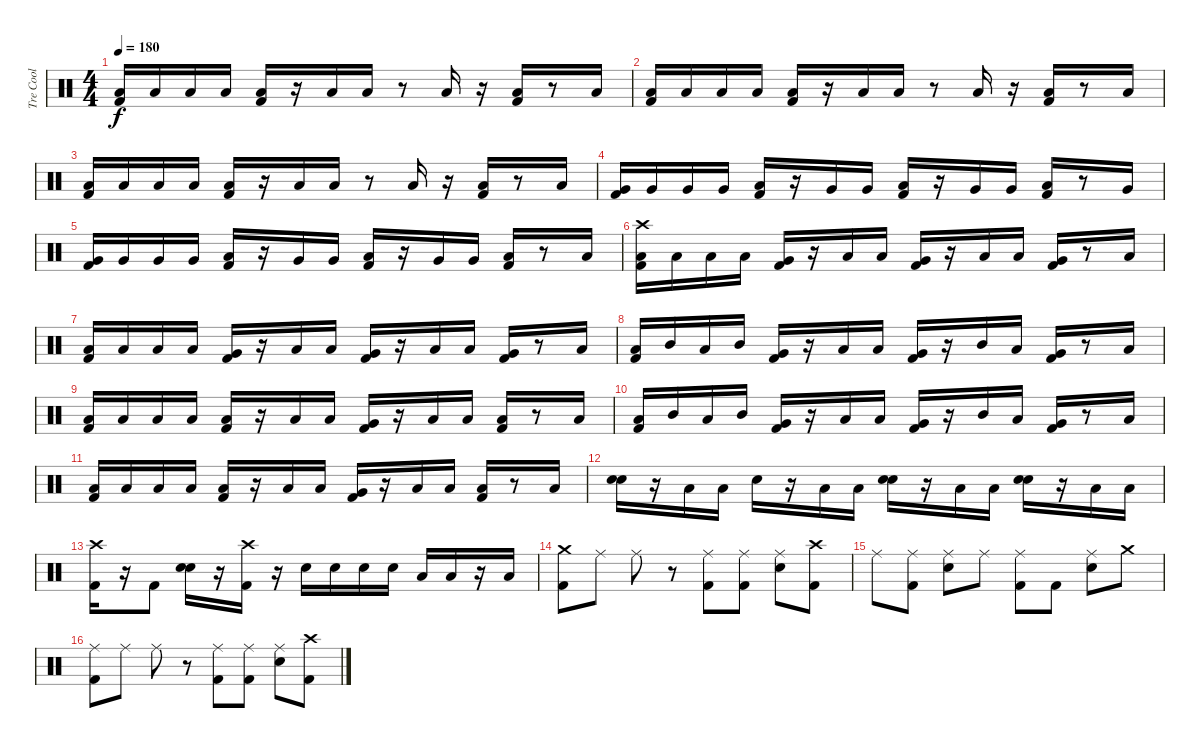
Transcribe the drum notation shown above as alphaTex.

\track ("Tre Cool" "Tre Cool") {instrument percussion}
\staff {score}
\articulation defaults
\ts (4 4)
\tempo 180
\clef neutral
\ks c
("Kick (hit) 2" "Low Floor Tom (hit)").16{dy f} "Low Floor Tom (hit)".16 "Low Floor Tom (hit)".16 "Low Floor Tom (hit)".16 ("Kick (hit) 2" "Low Floor Tom (hit)").16 r.16 "Low Floor Tom (hit)".16 "Low Floor Tom (hit)".16 r.8 "Low Floor Tom (hit)".16 r.16 ("Kick (hit) 2" "Low Floor Tom (hit)").16 r.8 "Low Floor Tom (hit)".16 |
("Kick (hit) 2" "Low Floor Tom (hit)").16 "Low Floor Tom (hit)".16 "Low Floor Tom (hit)".16 "Low Floor Tom (hit)".16 ("Kick (hit) 2" "Low Floor Tom (hit)").16 r.16 "Low Floor Tom (hit)".16 "Low Floor Tom (hit)".16 r.8 "Low Floor Tom (hit)".16 r.16 ("Kick (hit) 2" "Low Floor Tom (hit)").16 r.8 "Low Floor Tom (hit)".16 |
("Low Floor Tom (hit)" "Kick (hit) 2").16 "Low Floor Tom (hit)".16 "Low Floor Tom (hit)".16 "Low Floor Tom (hit)".16 ("Low Floor Tom (hit)" "Kick (hit) 2").16 r.16 "Low Floor Tom (hit)".16 "Low Floor Tom (hit)".16 r.8 "Low Floor Tom (hit)".16 r.16 ("Low Floor Tom (hit)" "Kick (hit) 2").16 r.8 "Low Floor Tom (hit)".16 |
("Very Low Tom (hit)" "Kick (hit) 2").16 "Very Low Tom (hit)".16 "Very Low Tom (hit)".16 "Very Low Tom (hit)".16 ("Kick (hit) 2" "Low Floor Tom (hit)").16 r.16 "Very Low Tom (hit)".16 "Very Low Tom (hit)".16 ("Kick (hit) 2" "Low Floor Tom (hit)").16 r.16 "Very Low Tom (hit)".16 "Very Low Tom (hit)".16 ("Kick (hit) 2" "Low Floor Tom (hit)").16 r.8 "Very Low Tom (hit)".16 |
("Kick (hit) 2" "Very Low Tom (hit)").16 "Very Low Tom (hit)".16 "Very Low Tom (hit)".16 "Very Low Tom (hit)".16 ("Low Floor Tom (hit)" "Kick (hit) 2").16 r.16 "Very Low Tom (hit)".16 "Very Low Tom (hit)".16 ("Low Floor Tom (hit)" "Kick (hit) 2").16 r.16 "Very Low Tom (hit)".16 "Very Low Tom (hit)".16 ("Low Floor Tom (hit)" "Kick (hit) 2").16 r.8 "Low Tom (hit)".16 |
("Crash high (hit)" "Low Tom (hit)" "Kick (hit) 2").16 "Low Tom (hit)".16 "Low Tom (hit)".16 "Low Tom (hit)".16 ("Very Low Tom (hit)" "Kick (hit) 2").16 r.16 "Low Tom (hit)".16 "Low Tom (hit)".16 ("Very Low Tom (hit)" "Kick (hit) 2").16 r.16 "Low Tom (hit)".16 "Low Tom (hit)".16 ("Very Low Tom (hit)" "Kick (hit) 2").16 r.8 "Low Tom (hit)".16 |
("Kick (hit) 2" "Low Tom (hit)").16 "Low Tom (hit)".16 "Low Tom (hit)".16 "Low Tom (hit)".16 ("Kick (hit) 2" "Very Low Tom (hit)").16 r.16 "Low Tom (hit)".16 "Low Tom (hit)".16 ("Kick (hit) 2" "Very Low Tom (hit)").16 r.16 "Low Tom (hit)".16 "Low Tom (hit)".16 ("Kick (hit) 2" "Very Low Tom (hit)").16 r.8 "Low Tom (hit)".16 |
("Kick (hit) 2" "Low Tom (hit)").16 "Mid Tom (hit)".16 "Low Tom (hit)".16 "Mid Tom (hit)".16 ("Kick (hit) 2" "Very Low Tom (hit)").16 r.16 "Low Tom (hit)".16 "Low Tom (hit)".16 ("Kick (hit) 2" "Very Low Tom (hit)").16 r.16 "Mid Tom (hit)".16 "Low Tom (hit)".16 ("Kick (hit) 2" "Very Low Tom (hit)").16 r.8 "Low Tom (hit)".16 |
("Low Tom (hit)" "Kick (hit) 2").16 "Low Tom (hit)".16 "Low Tom (hit)".16 "Low Tom (hit)".16 ("Low Floor Tom (hit)" "Kick (hit) 2").16 r.16 "Low Tom (hit)".16 "Low Tom (hit)".16 ("Very Low Tom (hit)" "Kick (hit) 2").16 r.16 "Low Tom (hit)".16 "Low Tom (hit)".16 ("Low Floor Tom (hit)" "Kick (hit) 2").16 r.8 "Low Tom (hit)".16 |
("Low Tom (hit)" "Kick (hit) 2").16 "Mid Tom (hit)".16 "Low Tom (hit)".16 "Mid Tom (hit)".16 ("Very Low Tom (hit)" "Kick (hit) 2").16 r.16 "Low Tom (hit)".16 "Low Tom (hit)".16 ("Very Low Tom (hit)" "Kick (hit) 2").16 r.16 "Mid Tom (hit)".16 "Low Tom (hit)".16 ("Very Low Tom (hit)" "Kick (hit) 2").16 r.8 "Low Tom (hit)".16 |
("Kick (hit) 2" "Low Tom (hit)").16 "Low Tom (hit)".16 "Low Tom (hit)".16 "Low Tom (hit)".16 ("Kick (hit) 2" "Low Floor Tom (hit)").16 r.16 "Low Tom (hit)".16 "Low Tom (hit)".16 ("Kick (hit) 2" "Very Low Tom (hit)").16 r.16 "Low Tom (hit)".16 "Low Tom (hit)".16 ("Kick (hit) 2" "Low Floor Tom (hit)").16 r.8 "Low Tom (hit)".16 |
("Electric Snare (hit)" "Snare (hit) 2").16 r.16 "Low Tom (hit)".16 "Low Tom (hit)".16 "Snare (hit) 2".16 r.16 "Low Tom (hit)".16 "Low Tom (hit)".16 ("Electric Snare (hit)" "Snare (hit) 2").16 r.16 "Low Tom (hit)".16 "Low Tom (hit)".16 ("Electric Snare (hit)" "Snare (hit) 2").16 r.16 "Low Tom (hit)".16 "Low Tom (hit)".16 |
("Crash high (hit)" "Kick (hit) 2").16 r.16 "Kick (hit) 2".8 ("Electric Snare (hit)" "Snare (hit) 2").16 r.16 ("Crash high (hit)" "Kick (hit) 2").16 r.16 "Snare (hit) 2".16 "Snare (hit) 2".16 "Snare (hit) 2".16 "Snare (hit) 2".16 "Low Tom (hit)".16 "Low Tom (hit)".16 r.16 "Low Tom (hit)".16 |
("Crash medium (hit)" "Kick (hit) 2").8 "Ride (middle)".8 "Ride (middle)".8 r.8 ("Ride (middle)" "Kick (hit) 2").8 ("Ride (middle)" "Kick (hit) 2").8 ("Ride (middle)" "Snare (hit) 2").8 ("Crash high (hit)" "Kick (hit) 2").8 |
"Ride (middle)".8 ("Ride (middle)" "Kick (hit) 2").8 ("Ride (middle)" "Snare (hit) 2").8 "Ride (middle)".8 ("Ride (middle)" "Kick (hit) 2").8 "Kick (hit) 2".8 ("Ride (middle)" "Snare (hit) 2").8 "Crash medium (hit)".8 |
("Ride (middle)" "Kick (hit) 2").8 "Ride (middle)".8 "Ride (middle)".8 r.8 ("Kick (hit) 2" "Ride (middle)").8 ("Kick (hit) 2" "Ride (middle)").8 ("Snare (hit) 2" "Ride (middle)").8 ("Kick (hit) 2" "Crash high (hit)").8
